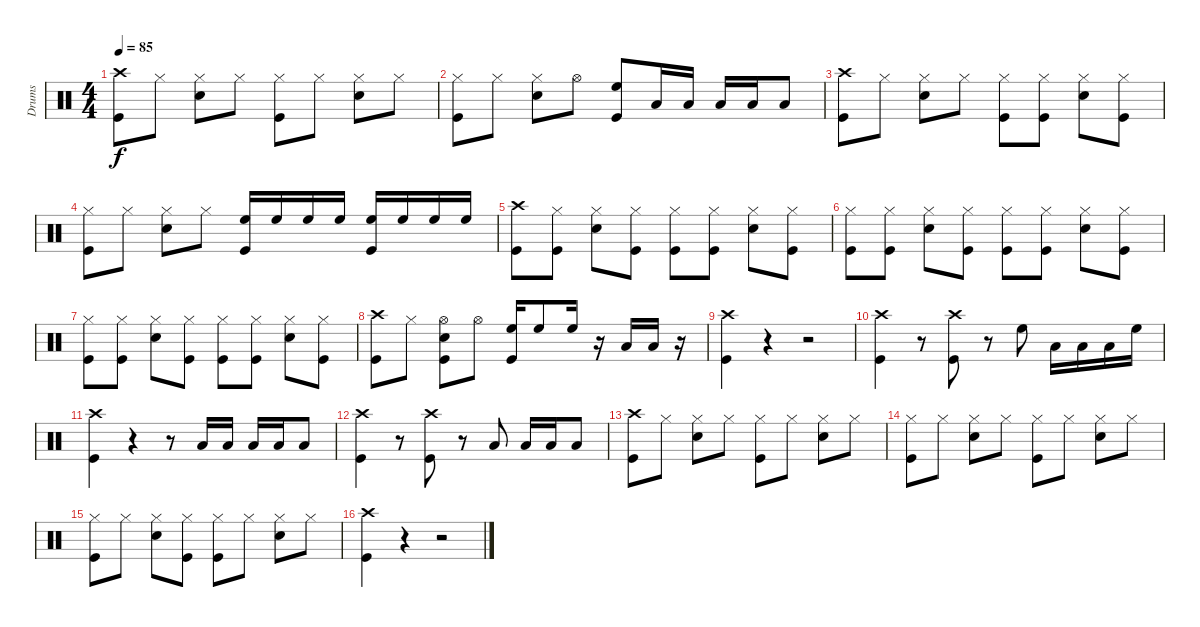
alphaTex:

\track ("Drums" "Drums") {instrument percussion}
\staff {score}
\articulation defaults
\ts (4 4)
\tempo 85
\clef neutral
\ks c
("Crash high (hit)" "Kick (hit)").8{dy f} "Hi-Hat (closed)".8 ("Hi-Hat (closed)" "Snare (hit) 2").8 "Hi-Hat (closed)".8 ("Hi-Hat (closed)" "Kick (hit)").8 "Hi-Hat (closed)".8 ("Hi-Hat (closed)" "Snare (hit) 2").8 "Hi-Hat (closed)".8 |
("Hi-Hat (closed)" "Kick (hit)").8 "Hi-Hat (closed)".8 ("Hi-Hat (closed)" "Snare (hit) 2").8 "Hi-Hat (open)".8 ("High Floor Tom (hit)" "Kick (hit)").8 "Low Floor Tom (hit)".16 "Low Floor Tom (hit)".16 "Low Floor Tom (hit)".16 "Low Floor Tom (hit)".16 "Low Floor Tom (hit)".8 |
("Crash high (hit)" "Kick (hit)").8 "Hi-Hat (closed)".8 ("Hi-Hat (closed)" "Snare (hit) 2").8 "Hi-Hat (closed)".8 ("Hi-Hat (closed)" "Kick (hit)").8 ("Hi-Hat (closed)" "Kick (hit)").8 ("Hi-Hat (closed)" "Snare (hit) 2").8 ("Hi-Hat (closed)" "Kick (hit)").8 |
("Hi-Hat (closed)" "Kick (hit)").8 "Hi-Hat (closed)".8 ("Hi-Hat (closed)" "Snare (hit) 2").8 "Hi-Hat (closed)".8 ("High Floor Tom (hit)" "Kick (hit)").16 "High Floor Tom (hit)".16 "High Floor Tom (hit)".16 "High Floor Tom (hit)".16 ("High Floor Tom (hit)" "Kick (hit)").16 "High Floor Tom (hit)".16 "High Floor Tom (hit)".16 "High Floor Tom (hit)".16 |
("Crash high (hit)" "Kick (hit)").8 ("Hi-Hat (closed)" "Kick (hit)").8 ("Hi-Hat (closed)" "Snare (hit) 2").8 ("Hi-Hat (closed)" "Kick (hit)").8 ("Hi-Hat (closed)" "Kick (hit)").8 ("Hi-Hat (closed)" "Kick (hit)").8 ("Hi-Hat (closed)" "Snare (hit) 2").8 ("Hi-Hat (closed)" "Kick (hit)").8 |
("Hi-Hat (closed)" "Kick (hit)").8 ("Hi-Hat (closed)" "Kick (hit)").8 ("Hi-Hat (closed)" "Snare (hit) 2").8 ("Hi-Hat (closed)" "Kick (hit)").8 ("Hi-Hat (closed)" "Kick (hit)").8 ("Hi-Hat (closed)" "Kick (hit)").8 ("Hi-Hat (closed)" "Snare (hit) 2").8 ("Hi-Hat (closed)" "Kick (hit)").8 |
("Hi-Hat (closed)" "Kick (hit)").8 ("Hi-Hat (closed)" "Kick (hit)").8 ("Hi-Hat (closed)" "Snare (hit) 2").8 ("Hi-Hat (closed)" "Kick (hit)").8 ("Hi-Hat (closed)" "Kick (hit)").8 ("Hi-Hat (closed)" "Kick (hit)").8 ("Hi-Hat (closed)" "Snare (hit) 2").8 ("Hi-Hat (closed)" "Kick (hit)").8 |
("Crash high (hit)" "Kick (hit)").8 "Hi-Hat (closed)".8 ("Hi-Hat (open)" "Snare (hit) 2" "Kick (hit)").8 "Hi-Hat (open)".8 ("High Floor Tom (hit)" "Kick (hit)").16 "High Floor Tom (hit)".8 "High Floor Tom (hit)".16 r.16 "Low Floor Tom (hit)".16 "Low Floor Tom (hit)".16 r.16 |
("Crash high (hit)" "Kick (hit)").4 r.4 r.2 |
("Crash high (hit)" "Kick (hit)").4 r.8 ("Crash high (hit)" "Kick (hit)").8 r.8 "High Floor Tom (hit)".8 "Low Floor Tom (hit)".16 "Low Floor Tom (hit)".16 "Low Floor Tom (hit)".16 "High Floor Tom (hit)".16 |
("Crash high (hit)" "Kick (hit)").4 r.4 r.8 "Low Floor Tom (hit)".16 "Low Floor Tom (hit)".16 "Low Floor Tom (hit)".16 "Low Floor Tom (hit)".16 "Low Floor Tom (hit)".8 |
("Crash high (hit)" "Kick (hit)").4 r.8 ("Crash high (hit)" "Kick (hit)").8 r.8 "Low Floor Tom (hit)".8 "Low Floor Tom (hit)".16 "Low Floor Tom (hit)".16 "Low Floor Tom (hit)".8 |
("Crash high (hit)" "Kick (hit)").8 "Hi-Hat (closed)".8 ("Hi-Hat (closed)" "Snare (hit) 2").8 "Hi-Hat (closed)".8 ("Hi-Hat (closed)" "Kick (hit)").8 "Hi-Hat (closed)".8 ("Hi-Hat (closed)" "Snare (hit) 2").8 "Hi-Hat (closed)".8 |
("Hi-Hat (closed)" "Kick (hit)").8 "Hi-Hat (closed)".8 ("Hi-Hat (closed)" "Snare (hit) 2").8 "Hi-Hat (closed)".8 ("Hi-Hat (closed)" "Kick (hit)").8 "Hi-Hat (closed)".8 ("Hi-Hat (closed)" "Snare (hit) 2").8 "Hi-Hat (closed)".8 |
("Hi-Hat (closed)" "Kick (hit)").8 "Hi-Hat (closed)".8 ("Hi-Hat (closed)" "Snare (hit) 2").8 ("Hi-Hat (closed)" "Kick (hit)").8 ("Hi-Hat (closed)" "Kick (hit)").8 "Hi-Hat (closed)".8 ("Hi-Hat (closed)" "Snare (hit) 2").8 "Hi-Hat (closed)".8 |
("Crash high (hit)" "Kick (hit)").4 r.4 r.2
